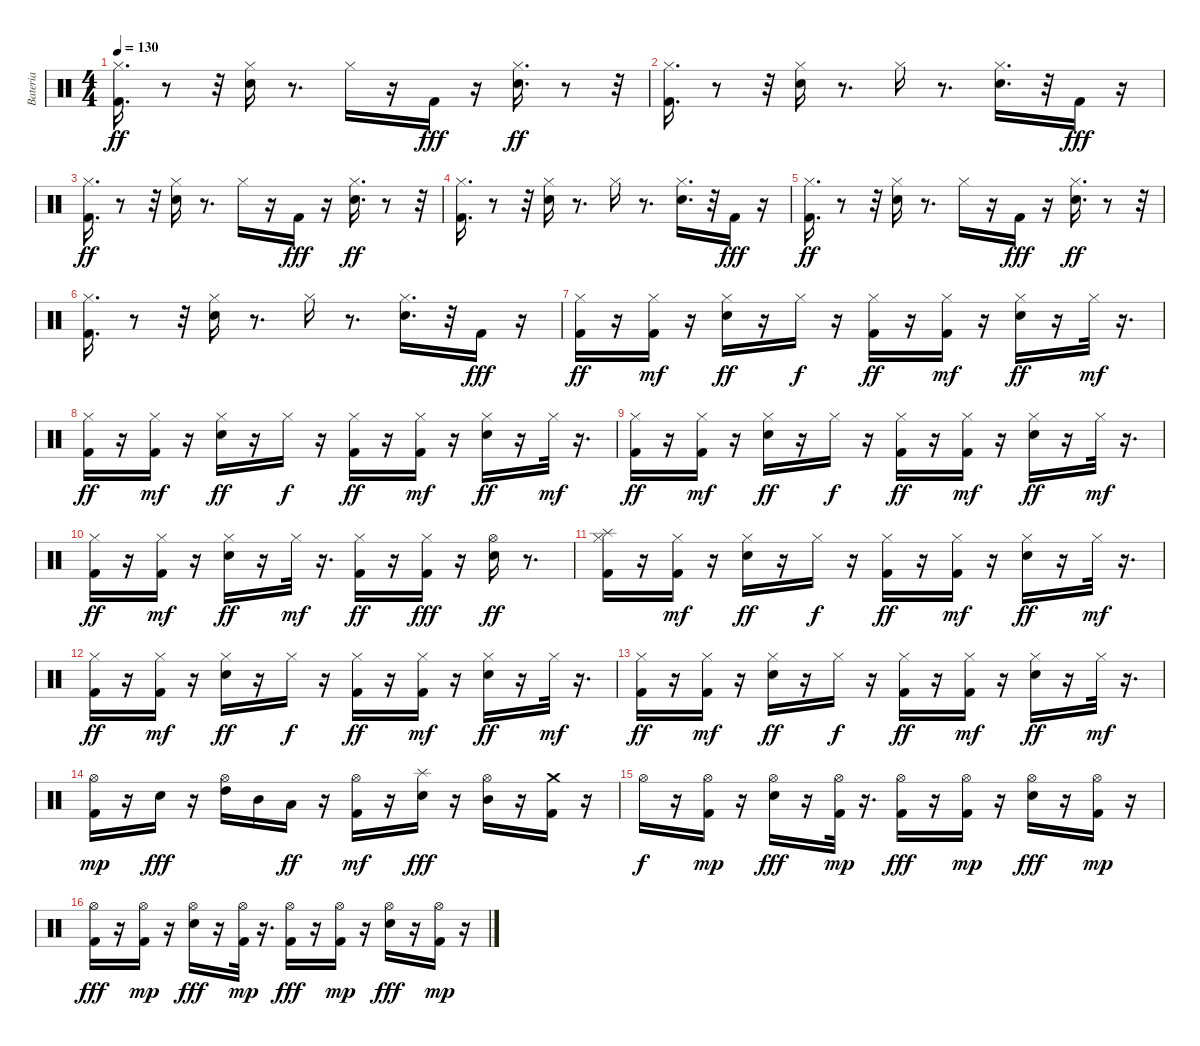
\track ("Bateria" "Bateria") {instrument percussion}
\staff {score}
\articulation defaults
\ts (4 4)
\tempo 130
\clef neutral
\ks c
("Kick (hit) 2" "Hi-Hat (closed)").16{d dy ff} r.8 r.32 ("Electric Snare (hit)" "Hi-Hat (closed)").16 r.8{d} "Hi-Hat (closed)".16 r.16 "Kick (hit) 2".16{dy fff} r.16 ("Electric Snare (hit)" "Hi-Hat (closed)").16{d dy ff} r.8 r.32 |
("Kick (hit) 2" "Hi-Hat (closed)").16{d} r.8 r.32 ("Electric Snare (hit)" "Hi-Hat (closed)").16 r.8{d} "Hi-Hat (closed)".16 r.8{d} ("Electric Snare (hit)" "Hi-Hat (closed)").16{d} r.32 "Kick (hit) 2".16{dy fff} r.16 |
("Kick (hit) 2" "Hi-Hat (closed)").16{d dy ff} r.8 r.32 ("Electric Snare (hit)" "Hi-Hat (closed)").16 r.8{d} "Hi-Hat (closed)".16 r.16 "Kick (hit) 2".16{dy fff} r.16 ("Electric Snare (hit)" "Hi-Hat (closed)").16{d dy ff} r.8 r.32 |
("Kick (hit) 2" "Hi-Hat (closed)").16{d} r.8 r.32 ("Electric Snare (hit)" "Hi-Hat (closed)").16 r.8{d} "Hi-Hat (closed)".16 r.8{d} ("Electric Snare (hit)" "Hi-Hat (closed)").16{d} r.32 "Kick (hit) 2".16{dy fff} r.16 |
("Kick (hit) 2" "Hi-Hat (closed)").16{d dy ff} r.8 r.32 ("Electric Snare (hit)" "Hi-Hat (closed)").16 r.8{d} "Hi-Hat (closed)".16 r.16 "Kick (hit) 2".16{dy fff} r.16 ("Electric Snare (hit)" "Hi-Hat (closed)").16{d dy ff} r.8 r.32 |
("Kick (hit) 2" "Hi-Hat (closed)").16{d} r.8 r.32 ("Electric Snare (hit)" "Hi-Hat (closed)").16 r.8{d} "Hi-Hat (closed)".16 r.8{d} ("Electric Snare (hit)" "Hi-Hat (closed)").16{d} r.32 "Kick (hit) 2".16{dy fff} r.16 |
("Kick (hit) 2" "Hi-Hat (closed)").16{dy ff} r.16 ("Kick (hit) 2" "Hi-Hat (closed)").16{dy mf} r.16 ("Electric Snare (hit)" "Hi-Hat (closed)").16{dy ff} r.16 "Hi-Hat (closed)".16{dy f} r.16 ("Kick (hit) 2" "Hi-Hat (closed)").16{dy ff} r.16 ("Kick (hit) 2" "Hi-Hat (closed)").16{dy mf} r.16 ("Electric Snare (hit)" "Hi-Hat (closed)").16{dy ff} r.16 "Hi-Hat (closed)".32{dy mf} r.16{d} |
("Kick (hit) 2" "Hi-Hat (closed)").16{dy ff} r.16 ("Kick (hit) 2" "Hi-Hat (closed)").16{dy mf} r.16 ("Electric Snare (hit)" "Hi-Hat (closed)").16{dy ff} r.16 "Hi-Hat (closed)".16{dy f} r.16 ("Kick (hit) 2" "Hi-Hat (closed)").16{dy ff} r.16 ("Kick (hit) 2" "Hi-Hat (closed)").16{dy mf} r.16 ("Electric Snare (hit)" "Hi-Hat (closed)").16{dy ff} r.16 "Hi-Hat (closed)".32{dy mf} r.16{d} |
("Kick (hit) 2" "Hi-Hat (closed)").16{dy ff} r.16 ("Kick (hit) 2" "Hi-Hat (closed)").16{dy mf} r.16 ("Electric Snare (hit)" "Hi-Hat (closed)").16{dy ff} r.16 "Hi-Hat (closed)".16{dy f} r.16 ("Kick (hit) 2" "Hi-Hat (closed)").16{dy ff} r.16 ("Kick (hit) 2" "Hi-Hat (closed)").16{dy mf} r.16 ("Electric Snare (hit)" "Hi-Hat (closed)").16{dy ff} r.16 "Hi-Hat (closed)".32{dy mf} r.16{d} |
("Kick (hit) 2" "Hi-Hat (closed)").16{dy ff} r.16 ("Kick (hit) 2" "Hi-Hat (closed)").16{dy mf} r.16 ("Electric Snare (hit)" "Hi-Hat (closed)").16{dy ff} r.16 "Hi-Hat (closed)".32{dy mf} r.16{d} ("Kick (hit) 2" "Hi-Hat (closed)").16{dy ff} r.16 ("Kick (hit) 2" "Hi-Hat (closed)").16{dy fff} r.16 ("Electric Snare (hit)" "Hi-Hat (open)").16{dy ff} r.8{d} |
("Kick (hit) 2" "Hi-Hat (closed)" "Splash (hit)").16 r.16 ("Kick (hit) 2" "Hi-Hat (closed)").16{dy mf} r.16 ("Electric Snare (hit)" "Hi-Hat (closed)").16{dy ff} r.16 "Hi-Hat (closed)".16{dy f} r.16 ("Kick (hit) 2" "Hi-Hat (closed)").16{dy ff} r.16 ("Kick (hit) 2" "Hi-Hat (closed)").16{dy mf} r.16 ("Electric Snare (hit)" "Hi-Hat (closed)").16{dy ff} r.16 "Hi-Hat (closed)".32{dy mf} r.16{d} |
("Kick (hit) 2" "Hi-Hat (closed)").16{dy ff} r.16 ("Kick (hit) 2" "Hi-Hat (closed)").16{dy mf} r.16 ("Electric Snare (hit)" "Hi-Hat (closed)").16{dy ff} r.16 "Hi-Hat (closed)".16{dy f} r.16 ("Kick (hit) 2" "Hi-Hat (closed)").16{dy ff} r.16 ("Kick (hit) 2" "Hi-Hat (closed)").16{dy mf} r.16 ("Electric Snare (hit)" "Hi-Hat (closed)").16{dy ff} r.16 "Hi-Hat (closed)".32{dy mf} r.16{d} |
("Kick (hit) 2" "Hi-Hat (closed)").16{dy ff} r.16 ("Kick (hit) 2" "Hi-Hat (closed)").16{dy mf} r.16 ("Electric Snare (hit)" "Hi-Hat (closed)").16{dy ff} r.16 "Hi-Hat (closed)".16{dy f} r.16 ("Kick (hit) 2" "Hi-Hat (closed)").16{dy ff} r.16 ("Kick (hit) 2" "Hi-Hat (closed)").16{dy mf} r.16 ("Electric Snare (hit)" "Hi-Hat (closed)").16{dy ff} r.16 "Hi-Hat (closed)".32{dy mf} r.16{d} |
("Kick (hit) 2" "Hi-Hat (open)").16{dy mp} r.16 "Electric Snare (hit)".16{dy fff} r.16 ("Hi-Hat (open)" "High Tom (hit)").16 "Mid Tom (hit)".16 "Low Tom (hit)".16{dy ff} r.16 ("Kick (hit) 2" "Hi-Hat (open)").16{dy mf} r.16 ("Electric Snare (hit)" "Splash (hit)").16{dy fff} r.16 ("Hi-Hat (open)" "Mid Tom (hit)").16 r.16 ("Kick (hit) 2" "Crash medium (hit)").16 r.16 |
"Hi-Hat (open)".16{dy f} r.16 ("Kick (hit) 2" "Hi-Hat (open)").16{dy mp} r.16 ("Electric Snare (hit)" "Hi-Hat (open)").16{dy fff} r.16 ("Kick (hit) 2" "Hi-Hat (open)").32{dy mp} r.16{d} ("Kick (hit) 2" "Hi-Hat (open)").16{dy fff} r.16 ("Kick (hit) 2" "Hi-Hat (open)").16{dy mp} r.16 ("Electric Snare (hit)" "Hi-Hat (open)").16{dy fff} r.16 ("Kick (hit) 2" "Hi-Hat (open)").16{dy mp} r.16 |
("Kick (hit) 2" "Hi-Hat (open)").16{dy fff} r.16 ("Kick (hit) 2" "Hi-Hat (open)").16{dy mp} r.16 ("Electric Snare (hit)" "Hi-Hat (open)").16{dy fff} r.16 ("Kick (hit) 2" "Hi-Hat (open)").32{dy mp} r.16{d} ("Kick (hit) 2" "Hi-Hat (open)").16{dy fff} r.16 ("Kick (hit) 2" "Hi-Hat (open)").16{dy mp} r.16 ("Electric Snare (hit)" "Hi-Hat (open)").16{dy fff} r.16 ("Kick (hit) 2" "Hi-Hat (open)").16{dy mp} r.16
